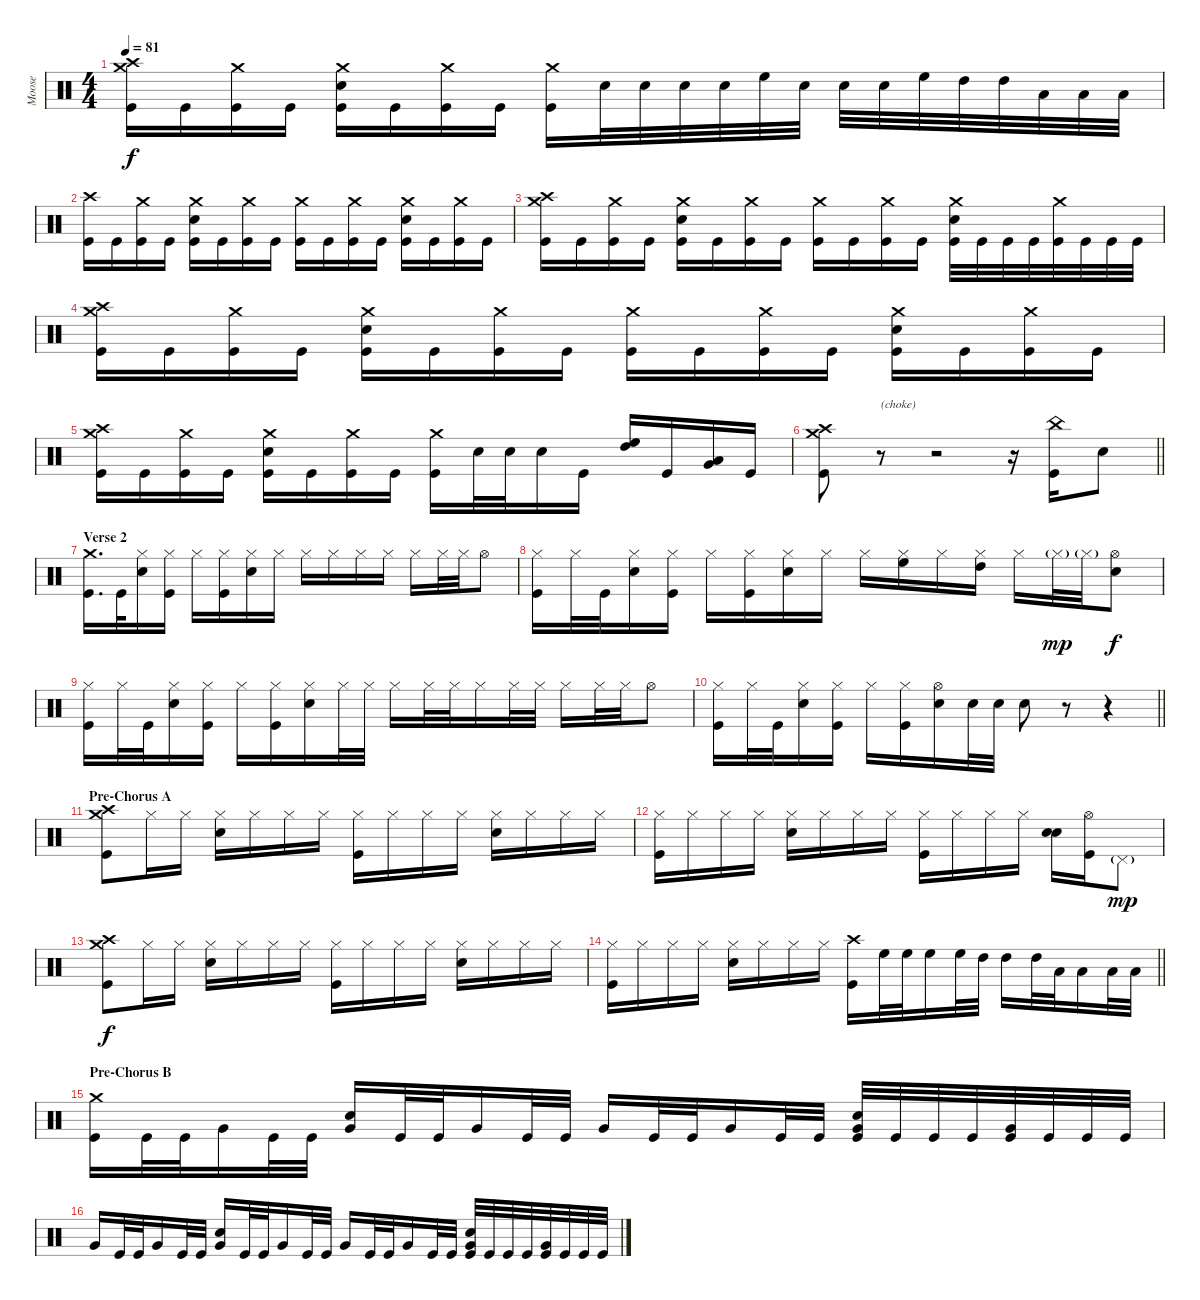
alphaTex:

\track ("Moose" "Moose") {instrument percussion}
\staff {score}
\articulation defaults
\ts (4 4)
\tempo 81
\clef neutral
\ks c
("Crash high (hit)" "Crash medium (hit)" "Kick (hit)").16{dy f} "Kick (hit)".16 ("Crash medium (hit)" "Kick (hit)").16 "Kick (hit)".16 ("Crash medium (hit)" "Electric Snare (hit)" "Kick (hit)").16 "Kick (hit)".16 ("Crash medium (hit)" "Kick (hit)").16 "Kick (hit)".16 ("Crash medium (hit)" "Kick (hit)").16 "Electric Snare (hit)".32 "Electric Snare (hit)".32 "Electric Snare (hit)".32 "Electric Snare (hit)".32 "High Floor Tom (hit)".32 "Electric Snare (hit)".32 "Electric Snare (hit)".32 "Electric Snare (hit)".32 "High Floor Tom (hit)".32 "High Tom (hit)".32 "High Tom (hit)".32 "Low Tom (hit)".32 "Low Tom (hit)".32 "Low Tom (hit)".32 |
("Crash high (hit)" "Kick (hit)").16 "Kick (hit)".16 ("Crash medium (hit)" "Kick (hit)").16 "Kick (hit)".16 ("Crash medium (hit)" "Electric Snare (hit)" "Kick (hit)").16 "Kick (hit)".16 ("Crash medium (hit)" "Kick (hit)").16 "Kick (hit)".16 ("Crash medium (hit)" "Kick (hit)").16 "Kick (hit)".16 ("Crash medium (hit)" "Kick (hit)").16 "Kick (hit)".16 ("Crash medium (hit)" "Electric Snare (hit)" "Kick (hit)").16 "Kick (hit)".16 ("Crash medium (hit)" "Kick (hit)").16 "Kick (hit)".16 |
("Crash high (hit)" "Crash medium (hit)" "Kick (hit)").16 "Kick (hit)".16 ("Crash medium (hit)" "Kick (hit)").16 "Kick (hit)".16 ("Crash medium (hit)" "Electric Snare (hit)" "Kick (hit)").16 "Kick (hit)".16 ("Crash medium (hit)" "Kick (hit)").16 "Kick (hit)".16 ("Crash medium (hit)" "Kick (hit)").16 "Kick (hit)".16 ("Crash medium (hit)" "Kick (hit)").16 "Kick (hit)".16 ("Crash medium (hit)" "Electric Snare (hit)" "Kick (hit)").32 "Kick (hit)".32 "Kick (hit)".32 "Kick (hit)".32 ("Crash medium (hit)" "Kick (hit)").32 "Kick (hit)".32 "Kick (hit)".32 "Kick (hit)".32 |
("Crash high (hit)" "Crash medium (hit)" "Kick (hit)").16 "Kick (hit)".16 ("Crash medium (hit)" "Kick (hit)").16 "Kick (hit)".16 ("Crash medium (hit)" "Electric Snare (hit)" "Kick (hit)").16 "Kick (hit)".16 ("Crash medium (hit)" "Kick (hit)").16 "Kick (hit)".16 ("Crash medium (hit)" "Kick (hit)").16 "Kick (hit)".16 ("Crash medium (hit)" "Kick (hit)").16 "Kick (hit)".16 ("Crash medium (hit)" "Electric Snare (hit)" "Kick (hit)").16 "Kick (hit)".16 ("Crash medium (hit)" "Kick (hit)").16 "Kick (hit)".16 |
("Crash high (hit)" "Crash medium (hit)" "Kick (hit)").16 "Kick (hit)".16 ("Crash medium (hit)" "Kick (hit)").16 "Kick (hit)".16 ("Crash medium (hit)" "Electric Snare (hit)" "Kick (hit)").16 "Kick (hit)".16 ("Crash medium (hit)" "Kick (hit)").16 "Kick (hit)".16 ("Crash medium (hit)" "Kick (hit)").16 "Electric Snare (hit)".32 "Electric Snare (hit)".32 "Electric Snare (hit)".16 "Kick (hit)".16 ("High Floor Tom (hit)" "High Tom (hit)").16{bd 60} "Kick (hit)".16 ("Low Tom (hit)" "Very Low Tom (hit)").16{bd 60} "Kick (hit)".16 |
\barLineRight lightlight
("Crash high (hit)" "Crash medium (hit)" "Kick (hit)").8 r.8{txt "(choke)"} r.2 r.16 ("China (hit)" "Kick (hit)").16 "Electric Snare (hit)".8 |
\section ("" "Verse 2")
("Crash medium (hit)" "Kick (hit)").16{d} "Kick (hit)".32 ("Hi-Hat (closed)" "Electric Snare (hit)").16 ("Hi-Hat (closed)" "Kick (hit)").16 "Hi-Hat (closed)".16 ("Hi-Hat (closed)" "Kick (hit)").16 ("Hi-Hat (closed)" "Electric Snare (hit)").16 "Hi-Hat (closed)".16 "Hi-Hat (closed)".16 "Hi-Hat (closed)".16 "Hi-Hat (closed)".16 "Hi-Hat (closed)".16 "Hi-Hat (closed)".16 "Hi-Hat (closed)".32 "Hi-Hat (closed)".32 "Hi-Hat (open)".8 |
("Hi-Hat (closed)" "Kick (hit)").16 "Hi-Hat (closed)".32 "Kick (hit)".32 ("Hi-Hat (closed)" "Electric Snare (hit)").16 ("Hi-Hat (closed)" "Kick (hit)").16 "Hi-Hat (closed)".16 ("Hi-Hat (closed)" "Kick (hit)").16 ("Hi-Hat (closed)" "Electric Snare (hit)").16 "Hi-Hat (closed)".16 "Hi-Hat (closed)".16 ("Hi-Hat (closed)" "High Floor Tom (hit)").16 "Hi-Hat (closed)".16 ("Hi-Hat (closed)" "High Tom (hit)").16 "Hi-Hat (closed)".16 "Hi-Hat (closed)"{g}.32{dy mp} "Hi-Hat (closed)"{g}.32 ("Hi-Hat (open)" "Electric Snare (hit)").8{dy f} |
("Hi-Hat (closed)" "Kick (hit)").16 "Hi-Hat (closed)".32 "Kick (hit)".32 ("Hi-Hat (closed)" "Electric Snare (hit)").16 ("Hi-Hat (closed)" "Kick (hit)").16 "Hi-Hat (closed)".16 ("Hi-Hat (closed)" "Kick (hit)").16 ("Hi-Hat (closed)" "Electric Snare (hit)").16 "Hi-Hat (closed)".32 "Hi-Hat (closed)".32 "Hi-Hat (closed)".16 "Hi-Hat (closed)".32 "Hi-Hat (closed)".32 "Hi-Hat (closed)".16 "Hi-Hat (closed)".32 "Hi-Hat (closed)".32 "Hi-Hat (closed)".16 "Hi-Hat (closed)".32 "Hi-Hat (closed)".32 "Hi-Hat (open)".8 |
\barLineRight lightlight
("Hi-Hat (closed)" "Kick (hit)").16 "Hi-Hat (closed)".32 "Kick (hit)".32 ("Hi-Hat (closed)" "Electric Snare (hit)").16 ("Hi-Hat (closed)" "Kick (hit)").16 "Hi-Hat (closed)".16 ("Hi-Hat (closed)" "Kick (hit)").16 ("Hi-Hat (open)" "Electric Snare (hit)").16 "Electric Snare (hit)".32 "Electric Snare (hit)".32 "Electric Snare (hit)".8 r.8 r.4 |
\section ("" "Pre-Chorus A")
("Crash high (hit)" "Crash medium (hit)" "Kick (hit)").8 "Hi-Hat (closed)".16 "Hi-Hat (closed)".16 ("Hi-Hat (closed)" "Electric Snare (hit)").16 "Hi-Hat (closed)".16 "Hi-Hat (closed)".16 "Hi-Hat (closed)".16 ("Hi-Hat (closed)" "Kick (hit)").16 "Hi-Hat (closed)".16 "Hi-Hat (closed)".16 "Hi-Hat (closed)".16 ("Hi-Hat (closed)" "Electric Snare (hit)").16 "Hi-Hat (closed)".16 "Hi-Hat (closed)".16 "Hi-Hat (closed)".16 |
("Hi-Hat (closed)" "Kick (hit)").16 "Hi-Hat (closed)".16 "Hi-Hat (closed)".16 "Hi-Hat (closed)".16 ("Hi-Hat (closed)" "Electric Snare (hit)").16 "Hi-Hat (closed)".16 "Hi-Hat (closed)".16 "Hi-Hat (closed)".16 ("Hi-Hat (closed)" "Kick (hit)").16 "Hi-Hat (closed)".16 "Hi-Hat (closed)".16 "Hi-Hat (closed)".16 ("Electric Snare (hit)" "Electric Snare (hit)").16{bd 120} ("Hi-Hat (open)" "Kick (hit)").16 "Pedal Hi-Hat (hit)"{g}.8{dy mp} |
("Crash high (hit)" "Crash medium (hit)" "Kick (hit)").8{dy f} "Hi-Hat (closed)".16 "Hi-Hat (closed)".16 ("Hi-Hat (closed)" "Electric Snare (hit)").16 "Hi-Hat (closed)".16 "Hi-Hat (closed)".16 "Hi-Hat (closed)".16 ("Hi-Hat (closed)" "Kick (hit)").16 "Hi-Hat (closed)".16 "Hi-Hat (closed)".16 "Hi-Hat (closed)".16 ("Hi-Hat (closed)" "Electric Snare (hit)").16 "Hi-Hat (closed)".16 "Hi-Hat (closed)".16 "Hi-Hat (closed)".16 |
\barLineRight lightlight
("Hi-Hat (closed)" "Kick (hit)").16 "Hi-Hat (closed)".16 "Hi-Hat (closed)".16 "Hi-Hat (closed)".16 ("Hi-Hat (closed)" "Electric Snare (hit)").16 "Hi-Hat (closed)".16 "Hi-Hat (closed)".16 "Hi-Hat (closed)".16 ("Crash high (hit)" "Kick (hit)").16 "High Floor Tom (hit)".32 "High Floor Tom (hit)".32 "High Floor Tom (hit)".16 "High Floor Tom (hit)".32 "High Tom (hit)".32 "High Tom (hit)".16 "High Tom (hit)".32 "Low Tom (hit)".32 "Low Tom (hit)".16 "Low Tom (hit)".32 "Low Tom (hit)".32 |
\section ("" "Pre-Chorus B")
("Crash medium (hit)" "Kick (hit)").16 "Kick (hit)".32 "Kick (hit)".32 "Very Low Tom (hit)".16 "Kick (hit)".32 "Kick (hit)".32 ("Electric Snare (hit)" "Very Low Tom (hit)").16 "Kick (hit)".32 "Kick (hit)".32 "Very Low Tom (hit)".16 "Kick (hit)".32 "Kick (hit)".32 "Very Low Tom (hit)".16 "Kick (hit)".32 "Kick (hit)".32 "Very Low Tom (hit)".16 "Kick (hit)".32 "Kick (hit)".32 ("Electric Snare (hit)" "Very Low Tom (hit)" "Kick (hit)").32 "Kick (hit)".32 "Kick (hit)".32 "Kick (hit)".32 ("Very Low Tom (hit)" "Kick (hit)").32 "Kick (hit)".32 "Kick (hit)".32 "Kick (hit)".32 |
"Very Low Tom (hit)".16 "Kick (hit)".32 "Kick (hit)".32 "Very Low Tom (hit)".16 "Kick (hit)".32 "Kick (hit)".32 ("Electric Snare (hit)" "Very Low Tom (hit)").16 "Kick (hit)".32 "Kick (hit)".32 "Very Low Tom (hit)".16 "Kick (hit)".32 "Kick (hit)".32 "Very Low Tom (hit)".16 "Kick (hit)".32 "Kick (hit)".32 "Very Low Tom (hit)".16 "Kick (hit)".32 "Kick (hit)".32 ("Electric Snare (hit)" "Very Low Tom (hit)" "Kick (hit)").32 "Kick (hit)".32 "Kick (hit)".32 "Kick (hit)".32 ("Very Low Tom (hit)" "Kick (hit)").32 "Kick (hit)".32 "Kick (hit)".32 "Kick (hit)".32
